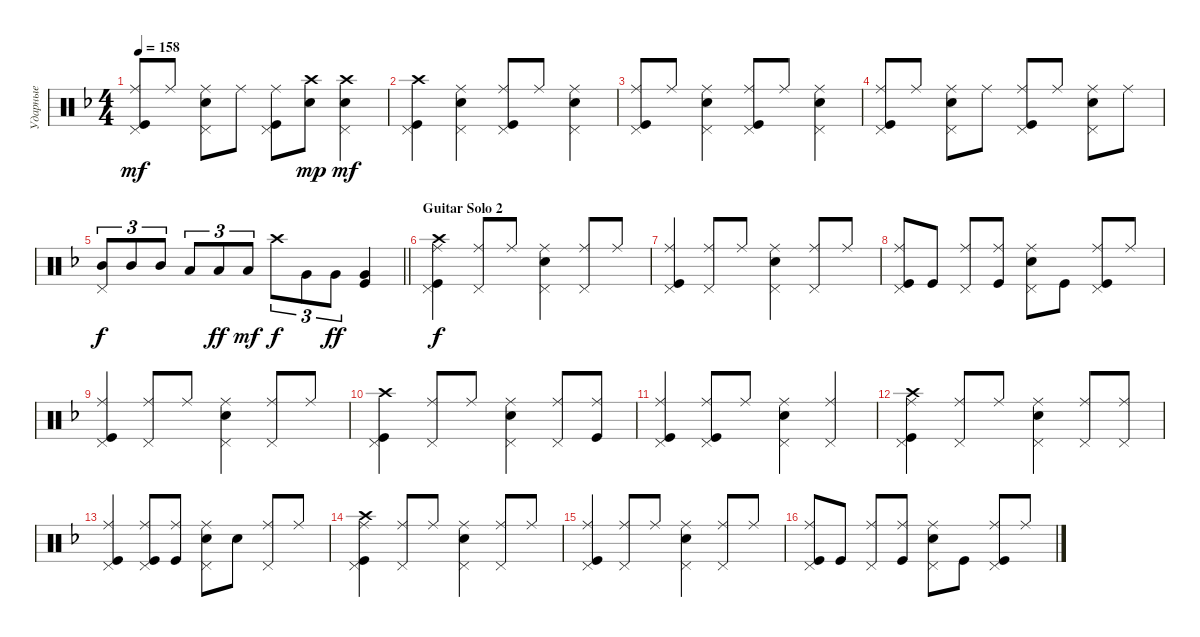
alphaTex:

\track ("Ударные" "Ударные") {instrument percussion}
\staff {score}
\articulation defaults
\ts (4 4)
\tempo 158
\clef neutral
\ks dminor
("Ride (middle)" "Kick (hit)" "Pedal Hi-Hat (hit)").8{dy mf} "Ride (middle)".8 ("Snare (hit) 2" "Pedal Hi-Hat (hit)" "Ride (middle)").8 "Ride (middle)".8 ("Ride (middle)" "Kick (hit)" "Pedal Hi-Hat (hit)").8 ("Crash high (hit)" "Snare (hit) 2").8{dy mp} ("Crash high (hit)" "Snare (hit) 2" "Pedal Hi-Hat (hit)").4{dy mf} |
("Kick (hit)" "Crash high (hit)" "Pedal Hi-Hat (hit)").4 ("Ride (middle)" "Snare (hit) 2" "Pedal Hi-Hat (hit)").4 ("Ride (middle)" "Kick (hit)" "Pedal Hi-Hat (hit)").8 "Ride (middle)".8 ("Snare (hit) 2" "Pedal Hi-Hat (hit)" "Ride (middle)").4 |
("Ride (middle)" "Kick (hit)" "Pedal Hi-Hat (hit)").8 "Ride (middle)".8 ("Snare (hit) 2" "Pedal Hi-Hat (hit)" "Ride (middle)").4 ("Ride (middle)" "Kick (hit)" "Pedal Hi-Hat (hit)").8 "Ride (middle)".8 ("Snare (hit) 2" "Pedal Hi-Hat (hit)" "Ride (middle)").4 |
("Ride (middle)" "Kick (hit)" "Pedal Hi-Hat (hit)").8 "Ride (middle)".8 ("Snare (hit) 2" "Pedal Hi-Hat (hit)" "Ride (middle)").8 "Ride (middle)".8 ("Ride (middle)" "Kick (hit)" "Pedal Hi-Hat (hit)").8 "Ride (middle)".8 ("Snare (hit) 2" "Pedal Hi-Hat (hit)" "Ride (middle)").8 "Ride (middle)".8 |
\barLineRight lightlight
("Mid Tom (hit)" "Pedal Hi-Hat (hit)").8{tu (3 2) dy f} "Mid Tom (hit)".8{tu (3 2)} "Mid Tom (hit)".8{tu (3 2)} "Low Tom (hit)".8{tu (3 2)} "Low Tom (hit)".8{tu (3 2) dy ff} "Low Tom (hit)".8{tu (3 2) dy mf} "Crash high (hit)".8{tu (3 2) dy f} "Very Low Tom (hit)".8{tu (3 2)} "Very Low Tom (hit)".8{tu (3 2) dy ff} ("Very Low Tom (hit)" "Kick (hit)").4 |
\section ("" "Guitar Solo 2")
("Crash high (hit)" "Kick (hit)" "Ride (middle)" "Pedal Hi-Hat (hit)").4{dy f} ("Ride (middle)" "Pedal Hi-Hat (hit)").8 "Ride (middle)".8 ("Ride (middle)" "Snare (hit) 2" "Pedal Hi-Hat (hit)").4 ("Ride (middle)" "Pedal Hi-Hat (hit)").8 "Ride (middle)".8 |
("Ride (middle)" "Kick (hit)" "Pedal Hi-Hat (hit)").4 ("Ride (middle)" "Pedal Hi-Hat (hit)").8 "Ride (middle)".8 ("Ride (middle)" "Snare (hit) 2" "Pedal Hi-Hat (hit)").4 ("Ride (middle)" "Pedal Hi-Hat (hit)").8 "Ride (middle)".8 |
("Kick (hit)" "Ride (middle)" "Pedal Hi-Hat (hit)").8 "Kick (hit)".8 ("Ride (middle)" "Pedal Hi-Hat (hit)").8 ("Kick (hit)" "Ride (middle)").8 ("Snare (hit) 2" "Pedal Hi-Hat (hit)" "Ride (middle)").8 "Kick (hit)".8 ("Kick (hit)" "Pedal Hi-Hat (hit)" "Ride (middle)").8 "Ride (middle)".8 |
("Ride (middle)" "Kick (hit)" "Pedal Hi-Hat (hit)").4 ("Ride (middle)" "Pedal Hi-Hat (hit)").8 "Ride (middle)".8 ("Ride (middle)" "Snare (hit) 2" "Pedal Hi-Hat (hit)").4 ("Ride (middle)" "Pedal Hi-Hat (hit)").8 "Ride (middle)".8 |
("Crash high (hit)" "Kick (hit)" "Pedal Hi-Hat (hit)").4 ("Ride (middle)" "Pedal Hi-Hat (hit)").8 "Ride (middle)".8 ("Ride (middle)" "Snare (hit) 2" "Pedal Hi-Hat (hit)").4 ("Ride (middle)" "Pedal Hi-Hat (hit)").8 ("Kick (hit)" "Ride (middle)").8 |
("Ride (middle)" "Kick (hit)" "Pedal Hi-Hat (hit)").4 ("Ride (middle)" "Kick (hit)" "Pedal Hi-Hat (hit)").8 "Ride (middle)".8 ("Ride (middle)" "Snare (hit) 2" "Pedal Hi-Hat (hit)").4 ("Ride (middle)" "Pedal Hi-Hat (hit)").4 |
("Kick (hit)" "Crash high (hit)" "Ride (middle)" "Pedal Hi-Hat (hit)").4 ("Pedal Hi-Hat (hit)" "Ride (middle)").8 "Ride (middle)".8 ("Snare (hit) 2" "Ride (middle)" "Pedal Hi-Hat (hit)").4 ("Ride (middle)" "Pedal Hi-Hat (hit)").8 ("Pedal Hi-Hat (hit)" "Ride (middle)").8 |
("Pedal Hi-Hat (hit)" "Kick (hit)" "Ride (middle)").4 ("Kick (hit)" "Ride (middle)" "Pedal Hi-Hat (hit)").8 ("Kick (hit)" "Ride (middle)").8 ("Snare (hit) 2" "Ride (middle)" "Pedal Hi-Hat (hit)").8 "Snare (hit) 2".8 ("Ride (middle)" "Pedal Hi-Hat (hit)").8 "Ride (middle)".8 |
("Crash high (hit)" "Kick (hit)" "Ride (middle)" "Pedal Hi-Hat (hit)").4 ("Ride (middle)" "Pedal Hi-Hat (hit)").8 "Ride (middle)".8 ("Ride (middle)" "Snare (hit) 2" "Pedal Hi-Hat (hit)").4 ("Ride (middle)" "Pedal Hi-Hat (hit)").8 "Ride (middle)".8 |
("Ride (middle)" "Kick (hit)" "Pedal Hi-Hat (hit)").4 ("Ride (middle)" "Pedal Hi-Hat (hit)").8 "Ride (middle)".8 ("Ride (middle)" "Snare (hit) 2" "Pedal Hi-Hat (hit)").4 ("Ride (middle)" "Pedal Hi-Hat (hit)").8 "Ride (middle)".8 |
("Kick (hit)" "Ride (middle)" "Pedal Hi-Hat (hit)").8 "Kick (hit)".8 ("Ride (middle)" "Pedal Hi-Hat (hit)").8 ("Kick (hit)" "Ride (middle)").8 ("Snare (hit) 2" "Pedal Hi-Hat (hit)" "Ride (middle)").8 "Kick (hit)".8 ("Kick (hit)" "Pedal Hi-Hat (hit)" "Ride (middle)").8 "Ride (middle)".8
